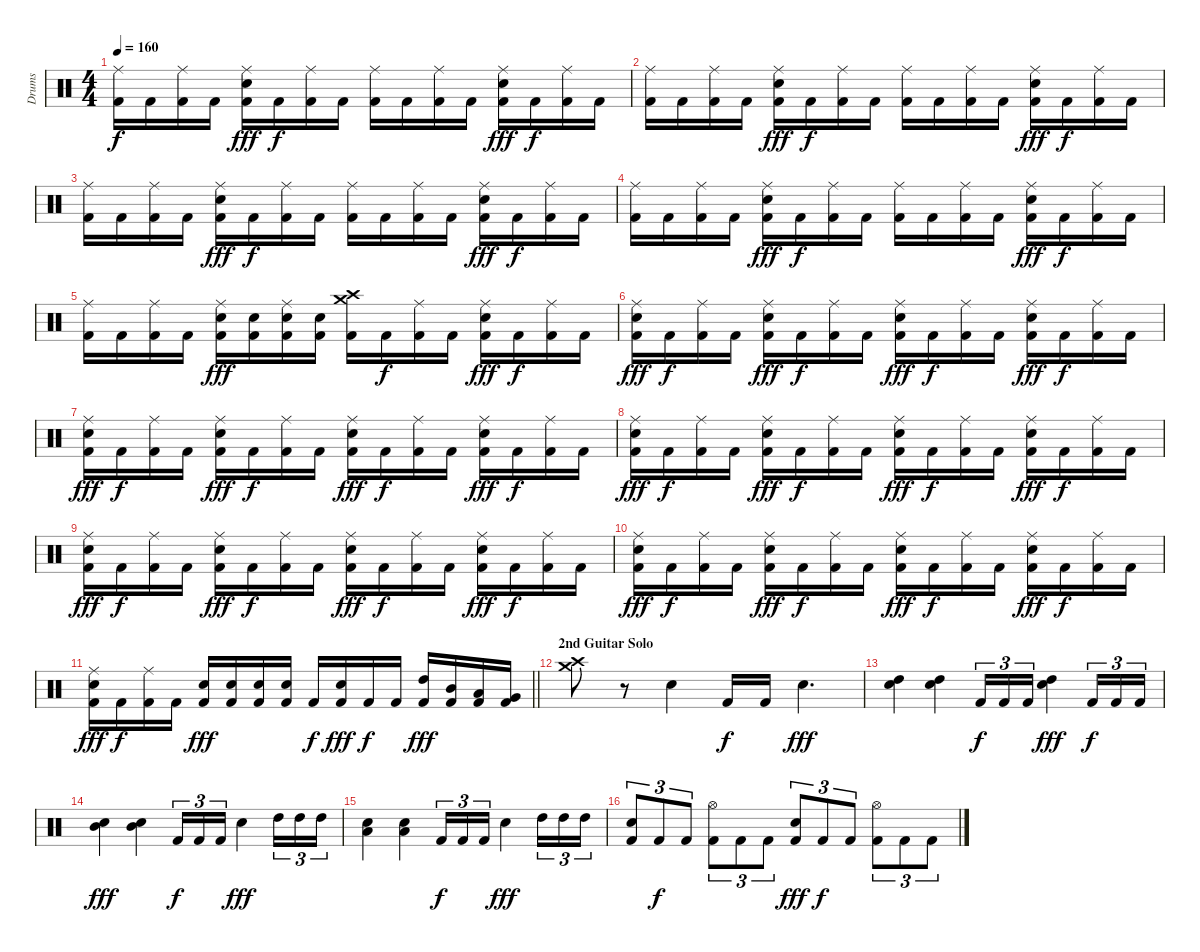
\track ("Drums" "Drums") {instrument percussion}
\staff {score}
\articulation defaults
\ts (4 4)
\tempo 160
\clef neutral
\ks c
("Ride (middle)" "Kick (hit) 2").16{dy f} "Kick (hit) 2".16 ("Ride (middle)" "Kick (hit) 2").16 "Kick (hit) 2".16 ("Ride (middle)" "Electric Snare (hit)" "Kick (hit) 2").16{dy fff} "Kick (hit) 2".16{dy f} ("Ride (middle)" "Kick (hit) 2").16 "Kick (hit) 2".16 ("Ride (middle)" "Kick (hit) 2").16 "Kick (hit) 2".16 ("Ride (middle)" "Kick (hit) 2").16 "Kick (hit) 2".16 ("Ride (middle)" "Electric Snare (hit)" "Kick (hit) 2").16{dy fff} "Kick (hit) 2".16{dy f} ("Ride (middle)" "Kick (hit) 2").16 "Kick (hit) 2".16 |
("Ride (middle)" "Kick (hit) 2").16 "Kick (hit) 2".16 ("Ride (middle)" "Kick (hit) 2").16 "Kick (hit) 2".16 ("Ride (middle)" "Electric Snare (hit)" "Kick (hit) 2").16{dy fff} "Kick (hit) 2".16{dy f} ("Ride (middle)" "Kick (hit) 2").16 "Kick (hit) 2".16 ("Ride (middle)" "Kick (hit) 2").16 "Kick (hit) 2".16 ("Ride (middle)" "Kick (hit) 2").16 "Kick (hit) 2".16 ("Ride (middle)" "Electric Snare (hit)" "Kick (hit) 2").16{dy fff} "Kick (hit) 2".16{dy f} ("Ride (middle)" "Kick (hit) 2").16 "Kick (hit) 2".16 |
("Ride (middle)" "Kick (hit) 2").16 "Kick (hit) 2".16 ("Ride (middle)" "Kick (hit) 2").16 "Kick (hit) 2".16 ("Ride (middle)" "Electric Snare (hit)" "Kick (hit) 2").16{dy fff} "Kick (hit) 2".16{dy f} ("Ride (middle)" "Kick (hit) 2").16 "Kick (hit) 2".16 ("Ride (middle)" "Kick (hit) 2").16 "Kick (hit) 2".16 ("Ride (middle)" "Kick (hit) 2").16 "Kick (hit) 2".16 ("Ride (middle)" "Electric Snare (hit)" "Kick (hit) 2").16{dy fff} "Kick (hit) 2".16{dy f} ("Ride (middle)" "Kick (hit) 2").16 "Kick (hit) 2".16 |
("Ride (middle)" "Kick (hit) 2").16 "Kick (hit) 2".16 ("Ride (middle)" "Kick (hit) 2").16 "Kick (hit) 2".16 ("Ride (middle)" "Electric Snare (hit)" "Kick (hit) 2").16{dy fff} "Kick (hit) 2".16{dy f} ("Ride (middle)" "Kick (hit) 2").16 "Kick (hit) 2".16 ("Ride (middle)" "Kick (hit) 2").16 "Kick (hit) 2".16 ("Ride (middle)" "Kick (hit) 2").16 "Kick (hit) 2".16 ("Ride (middle)" "Electric Snare (hit)" "Kick (hit) 2").16{dy fff} "Kick (hit) 2".16{dy f} ("Ride (middle)" "Kick (hit) 2").16 "Kick (hit) 2".16 |
("Ride (middle)" "Kick (hit) 2").16 "Kick (hit) 2".16 ("Ride (middle)" "Kick (hit) 2").16 "Kick (hit) 2".16 ("Ride (middle)" "Electric Snare (hit)" "Kick (hit) 2").16{dy fff} ("Electric Snare (hit)" "Kick (hit) 2").16 ("Ride (middle)" "Electric Snare (hit)" "Kick (hit) 2").16 ("Electric Snare (hit)" "Kick (hit) 2").16 ("Crash high (hit)" "Crash medium (hit)" "Kick (hit) 2").16 "Kick (hit) 2".16{dy f} ("Ride (middle)" "Kick (hit) 2").16 "Kick (hit) 2".16 ("Ride (middle)" "Electric Snare (hit)" "Kick (hit) 2").16{dy fff} "Kick (hit) 2".16{dy f} ("Ride (middle)" "Kick (hit) 2").16 "Kick (hit) 2".16 |
("Ride (middle)" "Electric Snare (hit)" "Kick (hit) 2").16{dy fff} "Kick (hit) 2".16{dy f} ("Ride (middle)" "Kick (hit) 2").16 "Kick (hit) 2".16 ("Ride (middle)" "Electric Snare (hit)" "Kick (hit) 2").16{dy fff} "Kick (hit) 2".16{dy f} ("Ride (middle)" "Kick (hit) 2").16 "Kick (hit) 2".16 ("Ride (middle)" "Electric Snare (hit)" "Kick (hit) 2").16{dy fff} "Kick (hit) 2".16{dy f} ("Ride (middle)" "Kick (hit) 2").16 "Kick (hit) 2".16 ("Ride (middle)" "Electric Snare (hit)" "Kick (hit) 2").16{dy fff} "Kick (hit) 2".16{dy f} ("Ride (middle)" "Kick (hit) 2").16 "Kick (hit) 2".16 |
("Ride (middle)" "Electric Snare (hit)" "Kick (hit) 2").16{dy fff} "Kick (hit) 2".16{dy f} ("Ride (middle)" "Kick (hit) 2").16 "Kick (hit) 2".16 ("Ride (middle)" "Electric Snare (hit)" "Kick (hit) 2").16{dy fff} "Kick (hit) 2".16{dy f} ("Ride (middle)" "Kick (hit) 2").16 "Kick (hit) 2".16 ("Ride (middle)" "Electric Snare (hit)" "Kick (hit) 2").16{dy fff} "Kick (hit) 2".16{dy f} ("Ride (middle)" "Kick (hit) 2").16 "Kick (hit) 2".16 ("Ride (middle)" "Electric Snare (hit)" "Kick (hit) 2").16{dy fff} "Kick (hit) 2".16{dy f} ("Ride (middle)" "Kick (hit) 2").16 "Kick (hit) 2".16 |
("Ride (middle)" "Electric Snare (hit)" "Kick (hit) 2").16{dy fff} "Kick (hit) 2".16{dy f} ("Ride (middle)" "Kick (hit) 2").16 "Kick (hit) 2".16 ("Ride (middle)" "Electric Snare (hit)" "Kick (hit) 2").16{dy fff} "Kick (hit) 2".16{dy f} ("Ride (middle)" "Kick (hit) 2").16 "Kick (hit) 2".16 ("Ride (middle)" "Electric Snare (hit)" "Kick (hit) 2").16{dy fff} "Kick (hit) 2".16{dy f} ("Ride (middle)" "Kick (hit) 2").16 "Kick (hit) 2".16 ("Ride (middle)" "Electric Snare (hit)" "Kick (hit) 2").16{dy fff} "Kick (hit) 2".16{dy f} ("Ride (middle)" "Kick (hit) 2").16 "Kick (hit) 2".16 |
("Ride (middle)" "Electric Snare (hit)" "Kick (hit) 2").16{dy fff} "Kick (hit) 2".16{dy f} ("Ride (middle)" "Kick (hit) 2").16 "Kick (hit) 2".16 ("Ride (middle)" "Electric Snare (hit)" "Kick (hit) 2").16{dy fff} "Kick (hit) 2".16{dy f} ("Ride (middle)" "Kick (hit) 2").16 "Kick (hit) 2".16 ("Ride (middle)" "Electric Snare (hit)" "Kick (hit) 2").16{dy fff} "Kick (hit) 2".16{dy f} ("Ride (middle)" "Kick (hit) 2").16 "Kick (hit) 2".16 ("Ride (middle)" "Electric Snare (hit)" "Kick (hit) 2").16{dy fff} "Kick (hit) 2".16{dy f} ("Ride (middle)" "Kick (hit) 2").16 "Kick (hit) 2".16 |
("Ride (middle)" "Electric Snare (hit)" "Kick (hit) 2").16{dy fff} "Kick (hit) 2".16{dy f} ("Ride (middle)" "Kick (hit) 2").16 "Kick (hit) 2".16 ("Ride (middle)" "Electric Snare (hit)" "Kick (hit) 2").16{dy fff} "Kick (hit) 2".16{dy f} ("Ride (middle)" "Kick (hit) 2").16 "Kick (hit) 2".16 ("Ride (middle)" "Electric Snare (hit)" "Kick (hit) 2").16{dy fff} "Kick (hit) 2".16{dy f} ("Ride (middle)" "Kick (hit) 2").16 "Kick (hit) 2".16 ("Ride (middle)" "Electric Snare (hit)" "Kick (hit) 2").16{dy fff} "Kick (hit) 2".16{dy f} ("Ride (middle)" "Kick (hit) 2").16 "Kick (hit) 2".16 |
\barLineRight lightlight
("Ride (middle)" "Electric Snare (hit)" "Kick (hit) 2").16{dy fff} "Kick (hit) 2".16{dy f} ("Ride (middle)" "Kick (hit) 2").16 "Kick (hit) 2".16 ("Electric Snare (hit)" "Kick (hit) 2").16{dy fff} ("Electric Snare (hit)" "Kick (hit) 2").16 ("Electric Snare (hit)" "Kick (hit) 2").16 ("Electric Snare (hit)" "Kick (hit) 2").16 "Kick (hit) 2".16{dy f} ("Electric Snare (hit)" "Kick (hit) 2").16{dy fff} "Kick (hit) 2".16{dy f} "Kick (hit) 2".16 ("High Tom (hit)" "Kick (hit) 2").16{dy fff} ("Mid Tom (hit)" "Kick (hit) 2").16 ("Low Tom (hit)" "Kick (hit) 2").16 ("Very Low Tom (hit)" "Kick (hit) 2").16 |
\section ("" "2nd Guitar Solo")
("Crash high (hit)" "Crash medium (hit)").8 r.8{volume 0} "Electric Snare (hit)".4{volume 16} "Kick (hit) 2".16{dy f} "Kick (hit) 2".16 "Electric Snare (hit)".4{d dy fff} |
("High Tom (hit)" "Electric Snare (hit)").4 ("High Tom (hit)" "Electric Snare (hit)").4 "Kick (hit) 2".16{tu (3 2) dy f} "Kick (hit) 2".16{tu (3 2)} "Kick (hit) 2".16{tu (3 2)} ("High Tom (hit)" "Electric Snare (hit)").4{dy fff} "Kick (hit) 2".16{tu (3 2) dy f} "Kick (hit) 2".16{tu (3 2)} "Kick (hit) 2".16{tu (3 2)} |
("Mid Tom (hit)" "Electric Snare (hit)").4{dy fff} ("Mid Tom (hit)" "Electric Snare (hit)").4 "Kick (hit) 2".16{tu (3 2) dy f} "Kick (hit) 2".16{tu (3 2)} "Kick (hit) 2".16{tu (3 2)} "Electric Snare (hit)".4{dy fff} "High Tom (hit)".16{tu (3 2)} "High Tom (hit)".16{tu (3 2)} "High Tom (hit)".16{tu (3 2)} |
("Low Tom (hit)" "Electric Snare (hit)").4 ("Low Tom (hit)" "Electric Snare (hit)").4 "Kick (hit) 2".16{tu (3 2) dy f} "Kick (hit) 2".16{tu (3 2)} "Kick (hit) 2".16{tu (3 2)} "Electric Snare (hit)".4{dy fff} "High Tom (hit)".16{tu (3 2)} "High Tom (hit)".16{tu (3 2)} "High Tom (hit)".16{tu (3 2)} |
("Electric Snare (hit)" "Kick (hit) 2").8{tu (3 2)} "Kick (hit) 2".8{tu (3 2) dy f} "Kick (hit) 2".8{tu (3 2)} ("Hi-Hat (open)" "Kick (hit) 2").8{tu (3 2)} "Kick (hit) 2".8{tu (3 2)} "Kick (hit) 2".8{tu (3 2)} ("Electric Snare (hit)" "Kick (hit) 2").8{tu (3 2) dy fff} "Kick (hit) 2".8{tu (3 2) dy f} "Kick (hit) 2".8{tu (3 2)} ("Hi-Hat (open)" "Kick (hit) 2").8{tu (3 2)} "Kick (hit) 2".8{tu (3 2)} "Kick (hit) 2".8{tu (3 2)}
